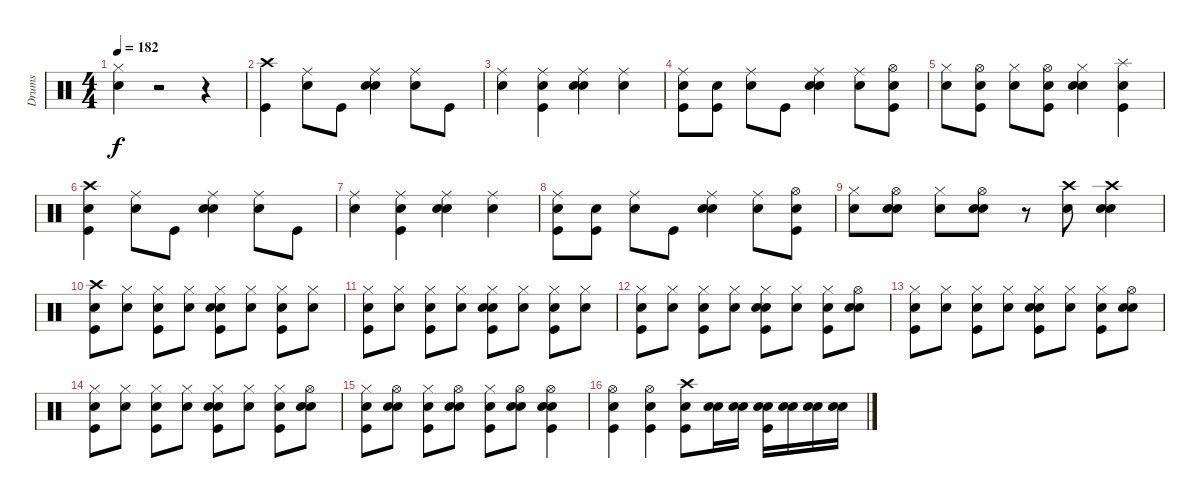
\track ("Drums" "Drums") {instrument percussion}
\staff {score}
\articulation defaults
\ts (4 4)
\tempo 182
\clef neutral
\ks c
("Snare (hit)" "Hi-Hat (closed)").4{dy f} r.2 r.4 |
("Kick (hit)" "Crash high (hit)").4 ("Snare (hit)" "Ride (middle)").8 "Kick (hit)".8 ("Snare (hit)" "Electric Snare (hit)" "Ride (middle)").4 ("Snare (hit)" "Ride (middle)").8 "Kick (hit)".8 |
("Snare (hit)" "Ride (middle)").4 ("Snare (hit)" "Kick (hit)" "Ride (middle)").4 ("Snare (hit)" "Electric Snare (hit)" "Ride (middle)").4 ("Snare (hit)" "Ride (middle)").4 |
("Snare (hit)" "Kick (hit)" "Ride (middle)").8 ("Snare (hit)" "Kick (hit)").8 ("Snare (hit)" "Ride (middle)").8 "Kick (hit)".8 ("Snare (hit)" "Electric Snare (hit)" "Ride (middle)").4 ("Snare (hit)" "Ride (middle)").8 ("Snare (hit)" "Kick (hit)" "Hi-Hat (open)").8 |
("Snare (hit)" "Hi-Hat (closed)").8 ("Snare (hit)" "Kick (hit)" "Hi-Hat (open)").8 ("Snare (hit)" "Hi-Hat (closed)").8 ("Snare (hit)" "Kick (hit)" "Hi-Hat (open)").8 ("Snare (hit)" "Electric Snare (hit)" "Hi-Hat (closed)").4 ("Snare (hit)" "Kick (hit)" "Splash (hit)").4 |
("Snare (hit)" "Kick (hit)" "Crash high (hit)").4 ("Snare (hit)" "Ride (middle)").8 "Kick (hit)".8 ("Snare (hit)" "Electric Snare (hit)" "Ride (middle)").4 ("Snare (hit)" "Ride (middle)").8 "Kick (hit)".8 |
("Snare (hit)" "Ride (middle)").4 ("Snare (hit)" "Kick (hit)" "Ride (middle)").4 ("Snare (hit)" "Electric Snare (hit)" "Ride (middle)").4 ("Snare (hit)" "Ride (middle)").4 |
("Snare (hit)" "Kick (hit)" "Ride (middle)").8 ("Snare (hit)" "Kick (hit)").8 ("Snare (hit)" "Ride (middle)").8 "Kick (hit)".8 ("Snare (hit)" "Electric Snare (hit)" "Ride (middle)").4 ("Snare (hit)" "Ride (middle)").8 ("Snare (hit)" "Kick (hit)" "Hi-Hat (open)").8 |
("Snare (hit)" "Hi-Hat (closed)").8 ("Snare (hit)" "Electric Snare (hit)" "Hi-Hat (open)").8 ("Snare (hit)" "Hi-Hat (closed)").8 ("Snare (hit)" "Electric Snare (hit)" "Hi-Hat (open)").8 r.8 ("Electric Snare (hit)" "Crash high (hit)").8 ("Snare (hit)" "Electric Snare (hit)" "Crash high (hit)").4 |
("Snare (hit)" "Kick (hit)" "Crash high (hit)").8 ("Snare (hit)" "Hi-Hat (closed)").8 ("Snare (hit)" "Kick (hit)" "Hi-Hat (closed)").8 ("Snare (hit)" "Hi-Hat (closed)").8 ("Snare (hit)" "Kick (hit)" "Electric Snare (hit)" "Hi-Hat (closed)").8 ("Snare (hit)" "Hi-Hat (closed)").8 ("Snare (hit)" "Kick (hit)" "Hi-Hat (closed)").8 ("Snare (hit)" "Hi-Hat (closed)").8 |
("Snare (hit)" "Kick (hit)" "Hi-Hat (closed)").8 ("Snare (hit)" "Hi-Hat (closed)").8 ("Snare (hit)" "Kick (hit)" "Hi-Hat (closed)").8 ("Snare (hit)" "Hi-Hat (closed)").8 ("Snare (hit)" "Kick (hit)" "Electric Snare (hit)" "Hi-Hat (closed)").8 ("Snare (hit)" "Hi-Hat (closed)").8 ("Snare (hit)" "Kick (hit)" "Hi-Hat (closed)").8 ("Snare (hit)" "Hi-Hat (closed)").8 |
("Snare (hit)" "Kick (hit)" "Hi-Hat (closed)").8 ("Snare (hit)" "Hi-Hat (closed)").8 ("Snare (hit)" "Kick (hit)" "Hi-Hat (closed)").8 ("Snare (hit)" "Hi-Hat (closed)").8 ("Snare (hit)" "Kick (hit)" "Electric Snare (hit)" "Hi-Hat (closed)").8 ("Snare (hit)" "Hi-Hat (closed)").8 ("Snare (hit)" "Kick (hit)" "Hi-Hat (closed)").8 ("Snare (hit)" "Electric Snare (hit)" "Hi-Hat (open)").8 |
("Snare (hit)" "Kick (hit)" "Hi-Hat (closed)").8 ("Snare (hit)" "Hi-Hat (closed)").8 ("Snare (hit)" "Kick (hit)" "Hi-Hat (closed)").8 ("Snare (hit)" "Hi-Hat (closed)").8 ("Snare (hit)" "Kick (hit)" "Electric Snare (hit)" "Hi-Hat (closed)").8 ("Snare (hit)" "Hi-Hat (closed)").8 ("Snare (hit)" "Kick (hit)" "Hi-Hat (closed)").8 ("Snare (hit)" "Electric Snare (hit)" "Hi-Hat (open)").8 |
("Snare (hit)" "Kick (hit)" "Hi-Hat (closed)").8 ("Snare (hit)" "Hi-Hat (closed)").8 ("Snare (hit)" "Kick (hit)" "Hi-Hat (closed)").8 ("Snare (hit)" "Hi-Hat (closed)").8 ("Snare (hit)" "Kick (hit)" "Electric Snare (hit)" "Hi-Hat (closed)").8 ("Snare (hit)" "Hi-Hat (closed)").8 ("Snare (hit)" "Kick (hit)" "Hi-Hat (closed)").8 ("Snare (hit)" "Electric Snare (hit)" "Hi-Hat (open)").8 |
("Snare (hit)" "Kick (hit)" "Hi-Hat (closed)").8 ("Snare (hit)" "Electric Snare (hit)" "Hi-Hat (open)").8 ("Snare (hit)" "Kick (hit)" "Hi-Hat (closed)").8 ("Snare (hit)" "Electric Snare (hit)" "Hi-Hat (open)").8 ("Snare (hit)" "Kick (hit)" "Hi-Hat (closed)").8 ("Snare (hit)" "Electric Snare (hit)" "Hi-Hat (open)").8 ("Snare (hit)" "Kick (hit)" "Electric Snare (hit)" "Hi-Hat (open)").4 |
("Snare (hit)" "Kick (hit)" "Hi-Hat (open)").4 ("Snare (hit)" "Kick (hit)" "Hi-Hat (open)").4 ("Snare (hit)" "Kick (hit)" "Crash high (hit)").8 ("Snare (hit)" "Electric Snare (hit)").16 ("Snare (hit)" "Electric Snare (hit)").16 ("Snare (hit)" "Kick (hit)" "Electric Snare (hit)").16 ("Snare (hit)" "Electric Snare (hit)").16 ("Snare (hit)" "Electric Snare (hit)").16 ("Snare (hit)" "Electric Snare (hit)").16
